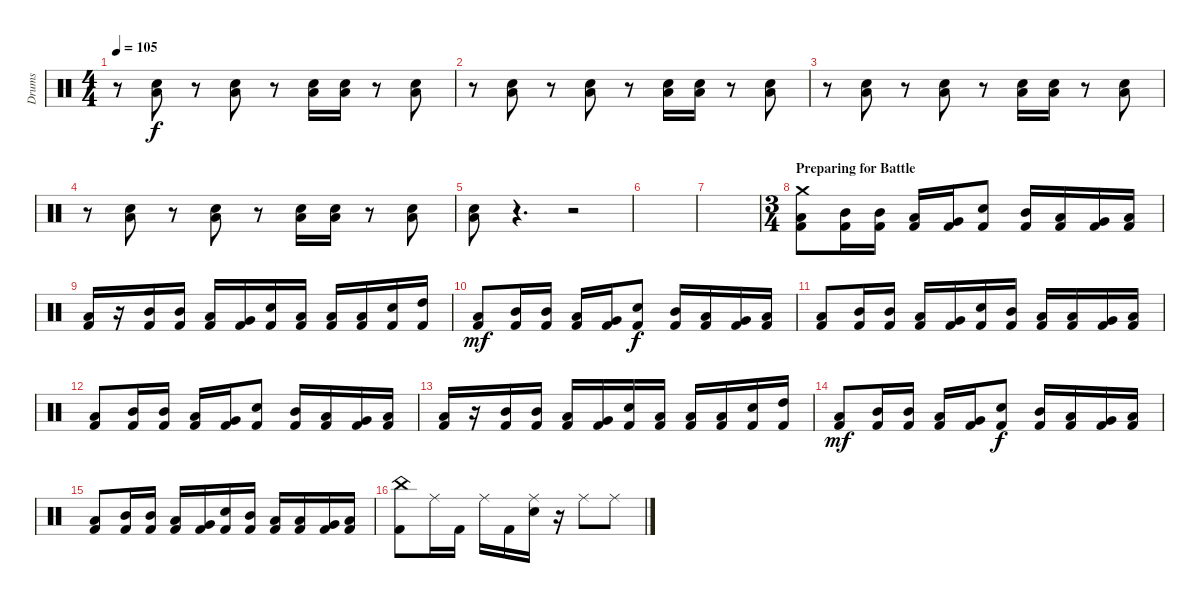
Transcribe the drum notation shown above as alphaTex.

\track ("Drums" "Drums") {instrument percussion}
\staff {score}
\articulation defaults
\ts (4 4)
\tempo 105
\clef neutral
\ks c
r.8{dy f} ("Low Floor Tom (hit)" "Hand Clap (hit)").8 r.8 ("Low Floor Tom (hit)" "Hand Clap (hit)").8 r.8 ("Low Floor Tom (hit)" "Hand Clap (hit)").16 ("Low Floor Tom (hit)" "Hand Clap (hit)").16 r.8 ("Low Floor Tom (hit)" "Hand Clap (hit)").8 |
r.8 ("Low Floor Tom (hit)" "Hand Clap (hit)").8 r.8 ("Low Floor Tom (hit)" "Hand Clap (hit)").8 r.8 ("Low Floor Tom (hit)" "Hand Clap (hit)").16 ("Low Floor Tom (hit)" "Hand Clap (hit)").16 r.8 ("Low Floor Tom (hit)" "Hand Clap (hit)").8 |
r.8 ("Low Floor Tom (hit)" "Hand Clap (hit)").8 r.8 ("Low Floor Tom (hit)" "Hand Clap (hit)").8 r.8 ("Low Floor Tom (hit)" "Hand Clap (hit)").16 ("Low Floor Tom (hit)" "Hand Clap (hit)").16 r.8 ("Low Floor Tom (hit)" "Hand Clap (hit)").8 |
r.8 ("Low Floor Tom (hit)" "Hand Clap (hit)").8 r.8 ("Low Floor Tom (hit)" "Hand Clap (hit)").8 r.8 ("Low Floor Tom (hit)" "Hand Clap (hit)").16 ("Low Floor Tom (hit)" "Hand Clap (hit)").16 r.8 ("Low Floor Tom (hit)" "Hand Clap (hit)").8 |
("Low Floor Tom (hit)" "Hand Clap (hit)").8 r.4{d} r.2 |
|
|
\ts (3 4)
\section ("" "Preparing for Battle")
("Crash medium (hit)" "Low Tom (hit)" "Kick (hit) 2").8 ("Mid Tom (hit)" "Kick (hit) 2").16 ("Mid Tom (hit)" "Kick (hit) 2").16 ("Low Tom (hit)" "Kick (hit) 2").16 ("Very Low Tom (hit)" "Kick (hit) 2").16 ("Electric Snare (hit)" "Kick (hit) 2").8 ("Mid Tom (hit)" "Kick (hit) 2").16 ("Low Tom (hit)" "Kick (hit) 2").16 ("Very Low Tom (hit)" "Kick (hit) 2").16 ("Low Floor Tom (hit)" "Kick (hit) 2").16 |
("Low Tom (hit)" "Kick (hit) 2").16 r.16 ("Mid Tom (hit)" "Kick (hit) 2").16 ("Mid Tom (hit)" "Kick (hit) 2").16 ("Low Tom (hit)" "Kick (hit) 2").16 ("Very Low Tom (hit)" "Kick (hit) 2").16 ("Electric Snare (hit)" "Kick (hit) 2").16 ("Low Tom (hit)" "Kick (hit) 2").16 ("Low Tom (hit)" "Kick (hit) 2").16 ("Low Tom (hit)" "Kick (hit) 2").16 ("Electric Snare (hit)" "Kick (hit) 2").16 ("High Tom (hit)" "Kick (hit) 2").16 |
("Low Tom (hit)" "Kick (hit) 2").8{dy mf} ("Mid Tom (hit)" "Kick (hit) 2").16 ("Mid Tom (hit)" "Kick (hit) 2").16 ("Low Tom (hit)" "Kick (hit) 2").16 ("Very Low Tom (hit)" "Kick (hit) 2").16 ("Electric Snare (hit)" "Kick (hit) 2").8{dy f} ("Mid Tom (hit)" "Kick (hit) 2").16 ("Low Tom (hit)" "Kick (hit) 2").16 ("Very Low Tom (hit)" "Kick (hit) 2").16 ("Low Floor Tom (hit)" "Kick (hit) 2").16 |
("Low Tom (hit)" "Kick (hit) 2").8 ("Mid Tom (hit)" "Kick (hit) 2").16 ("Mid Tom (hit)" "Kick (hit) 2").16 ("Low Tom (hit)" "Kick (hit) 2").16 ("Very Low Tom (hit)" "Kick (hit) 2").16 ("Electric Snare (hit)" "Kick (hit) 2").16 ("Mid Tom (hit)" "Kick (hit) 2").16 ("Low Tom (hit)" "Kick (hit) 2").16 ("Low Tom (hit)" "Kick (hit) 2").16 ("Very Low Tom (hit)" "Kick (hit) 2").16 ("Low Floor Tom (hit)" "Kick (hit) 2").16 |
("Low Tom (hit)" "Kick (hit) 2").8 ("Mid Tom (hit)" "Kick (hit) 2").16 ("Mid Tom (hit)" "Kick (hit) 2").16 ("Low Tom (hit)" "Kick (hit) 2").16 ("Very Low Tom (hit)" "Kick (hit) 2").16 ("Electric Snare (hit)" "Kick (hit) 2").8 ("Mid Tom (hit)" "Kick (hit) 2").16 ("Low Tom (hit)" "Kick (hit) 2").16 ("Very Low Tom (hit)" "Kick (hit) 2").16 ("Low Floor Tom (hit)" "Kick (hit) 2").16 |
("Low Tom (hit)" "Kick (hit) 2").16 r.16 ("Mid Tom (hit)" "Kick (hit) 2").16 ("Mid Tom (hit)" "Kick (hit) 2").16 ("Low Tom (hit)" "Kick (hit) 2").16 ("Very Low Tom (hit)" "Kick (hit) 2").16 ("Electric Snare (hit)" "Kick (hit) 2").16 ("Low Tom (hit)" "Kick (hit) 2").16 ("Low Tom (hit)" "Kick (hit) 2").16 ("Low Tom (hit)" "Kick (hit) 2").16 ("Electric Snare (hit)" "Kick (hit) 2").16 ("High Tom (hit)" "Kick (hit) 2").16 |
("Low Tom (hit)" "Kick (hit) 2").8{dy mf} ("Mid Tom (hit)" "Kick (hit) 2").16 ("Mid Tom (hit)" "Kick (hit) 2").16 ("Low Tom (hit)" "Kick (hit) 2").16 ("Very Low Tom (hit)" "Kick (hit) 2").16 ("Electric Snare (hit)" "Kick (hit) 2").8{dy f} ("Mid Tom (hit)" "Kick (hit) 2").16 ("Low Tom (hit)" "Kick (hit) 2").16 ("Very Low Tom (hit)" "Kick (hit) 2").16 ("Low Floor Tom (hit)" "Kick (hit) 2").16 |
("Low Tom (hit)" "Kick (hit) 2").8 ("Mid Tom (hit)" "Kick (hit) 2").16 ("Mid Tom (hit)" "Kick (hit) 2").16 ("Low Tom (hit)" "Kick (hit) 2").16 ("Very Low Tom (hit)" "Kick (hit) 2").16 ("Electric Snare (hit)" "Kick (hit) 2").16 ("Mid Tom (hit)" "Kick (hit) 2").16 ("Low Tom (hit)" "Kick (hit) 2").16 ("Low Tom (hit)" "Kick (hit) 2").16 ("Very Low Tom (hit)" "Kick (hit) 2").16 ("Low Floor Tom (hit)" "Kick (hit) 2").16 |
("China (hit)" "Kick (hit) 2").8 "Ride (middle)".16 "Kick (hit) 2".16 "Ride (middle)".16 "Kick (hit) 2".16 ("Ride (middle)" "Electric Snare (hit)").16 r.16 "Ride (middle)".8 "Ride (middle)".8
